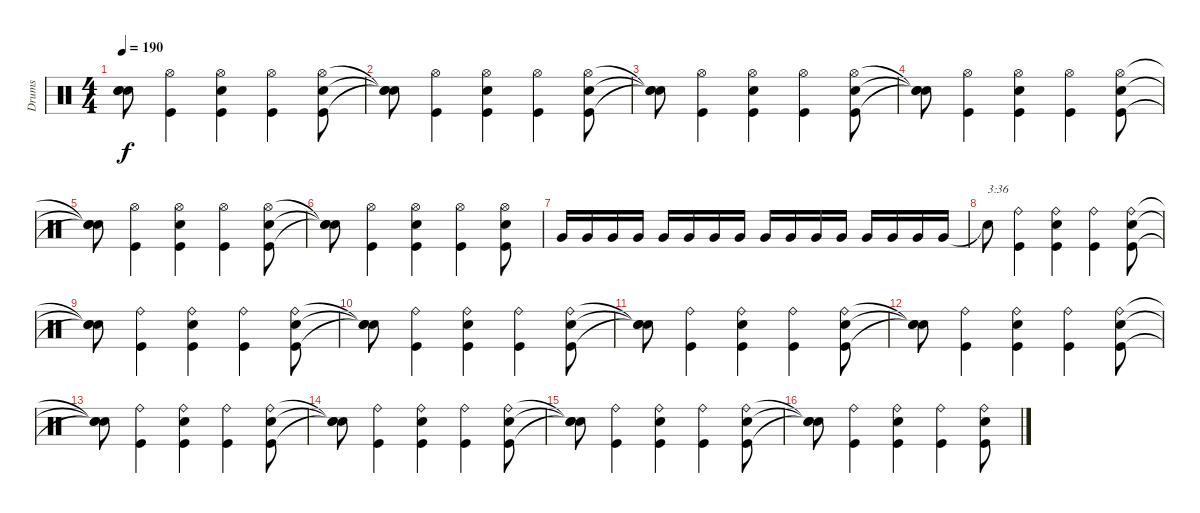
\track ("Drums" "Drums") {instrument percussion}
\staff {score}
\articulation defaults
\ts (4 4)
\tempo 190
\clef neutral
\ks c
("Snare (hit)"{t} "Snare (hit)"{t} "Snare (hit)"{t}).8{dy f} ("Kick (hit)" "Hi-Hat (open)").4 ("Kick (hit)" "Snare (hit) 2" "Hi-Hat (open)").4 ("Kick (hit)" "Hi-Hat (open)").4 ("Kick (hit)" "Snare (hit) 2" "Hi-Hat (open)").8 |
("Snare (hit)"{t} "Snare (hit)"{t} "Snare (hit)"{t}).8 ("Kick (hit)" "Hi-Hat (open)").4 ("Kick (hit)" "Snare (hit) 2" "Hi-Hat (open)").4 ("Kick (hit)" "Hi-Hat (open)").4 ("Kick (hit)" "Snare (hit) 2" "Hi-Hat (open)").8 |
("Snare (hit)"{t} "Snare (hit)"{t} "Snare (hit)"{t}).8 ("Kick (hit)" "Hi-Hat (open)").4 ("Kick (hit)" "Snare (hit) 2" "Hi-Hat (open)").4 ("Kick (hit)" "Hi-Hat (open)").4 ("Kick (hit)" "Snare (hit) 2" "Hi-Hat (open)").8 |
("Snare (hit)"{t} "Snare (hit)"{t} "Snare (hit)"{t}).8 ("Kick (hit)" "Hi-Hat (open)").4 ("Kick (hit)" "Snare (hit) 2" "Hi-Hat (open)").4 ("Kick (hit)" "Hi-Hat (open)").4 ("Kick (hit)" "Snare (hit) 2" "Hi-Hat (open)").8 |
("Snare (hit)"{t} "Snare (hit)"{t} "Snare (hit)"{t}).8 ("Kick (hit)" "Hi-Hat (open)").4 ("Kick (hit)" "Snare (hit) 2" "Hi-Hat (open)").4 ("Kick (hit)" "Hi-Hat (open)").4 ("Kick (hit)" "Snare (hit) 2" "Hi-Hat (open)").8 |
("Snare (hit)"{t} "Snare (hit)"{t} "Snare (hit)"{t}).8 ("Kick (hit)" "Hi-Hat (open)").4 ("Kick (hit)" "Snare (hit) 2" "Hi-Hat (open)").4 ("Kick (hit)" "Hi-Hat (open)").4 ("Kick (hit)" "Snare (hit) 2" "Hi-Hat (open)").8 |
"Very Low Tom (hit)".16 "Very Low Tom (hit)".16 "Very Low Tom (hit)".16 "Very Low Tom (hit)".16 "Very Low Tom (hit)".16 "Very Low Tom (hit)".16 "Very Low Tom (hit)".16 "Very Low Tom (hit)".16 "Very Low Tom (hit)".16 "Very Low Tom (hit)".16 "Very Low Tom (hit)".16 "Very Low Tom (hit)".16 "Very Low Tom (hit)".16 "Very Low Tom (hit)".16 "Very Low Tom (hit)".16 "Very Low Tom (hit)".16 |
"Snare (hit)"{t}.8{txt "3:36"} ("Kick (hit)" "Ride (bell)").4 ("Kick (hit)" "Snare (hit) 2" "Ride (bell)").4 ("Kick (hit)" "Ride (bell)").4 ("Kick (hit)" "Snare (hit) 2" "Ride (bell)").8 |
("Snare (hit)"{t} "Snare (hit)"{t} "Snare (hit)"{t}).8 ("Kick (hit)" "Ride (bell)").4 ("Kick (hit)" "Snare (hit) 2" "Ride (bell)").4 ("Kick (hit)" "Ride (bell)").4 ("Kick (hit)" "Snare (hit) 2" "Ride (bell)").8 |
("Snare (hit)"{t} "Snare (hit)"{t} "Snare (hit)"{t}).8 ("Kick (hit)" "Ride (bell)").4 ("Kick (hit)" "Snare (hit) 2" "Ride (bell)").4 ("Kick (hit)" "Ride (bell)").4 ("Kick (hit)" "Snare (hit) 2" "Ride (bell)").8 |
("Snare (hit)"{t} "Snare (hit)"{t} "Snare (hit)"{t}).8 ("Kick (hit)" "Ride (bell)").4 ("Kick (hit)" "Snare (hit) 2" "Ride (bell)").4 ("Kick (hit)" "Ride (bell)").4 ("Kick (hit)" "Snare (hit) 2" "Ride (bell)").8 |
("Snare (hit)"{t} "Snare (hit)"{t} "Snare (hit)"{t}).8 ("Kick (hit)" "Ride (bell)").4 ("Kick (hit)" "Snare (hit) 2" "Ride (bell)").4 ("Kick (hit)" "Ride (bell)").4 ("Kick (hit)" "Snare (hit) 2" "Ride (bell)").8 |
("Snare (hit)"{t} "Snare (hit)"{t} "Snare (hit)"{t}).8 ("Kick (hit)" "Ride (bell)").4 ("Kick (hit)" "Snare (hit) 2" "Ride (bell)").4 ("Kick (hit)" "Ride (bell)").4 ("Kick (hit)" "Snare (hit) 2" "Ride (bell)").8 |
("Snare (hit)"{t} "Snare (hit)"{t} "Snare (hit)"{t}).8 ("Kick (hit)" "Ride (bell)").4 ("Kick (hit)" "Snare (hit) 2" "Ride (bell)").4 ("Kick (hit)" "Ride (bell)").4 ("Kick (hit)" "Snare (hit) 2" "Ride (bell)").8 |
("Snare (hit)"{t} "Snare (hit)"{t} "Snare (hit)"{t}).8 ("Kick (hit)" "Ride (bell)").4 ("Kick (hit)" "Snare (hit) 2" "Ride (bell)").4 ("Kick (hit)" "Ride (bell)").4 ("Kick (hit)" "Snare (hit) 2" "Ride (bell)").8 |
("Snare (hit)"{t} "Snare (hit)"{t} "Snare (hit)"{t}).8 ("Kick (hit)" "Ride (bell)").4 ("Kick (hit)" "Snare (hit) 2" "Ride (bell)").4 ("Kick (hit)" "Ride (bell)").4 ("Kick (hit)" "Snare (hit) 2" "Ride (bell)").8
